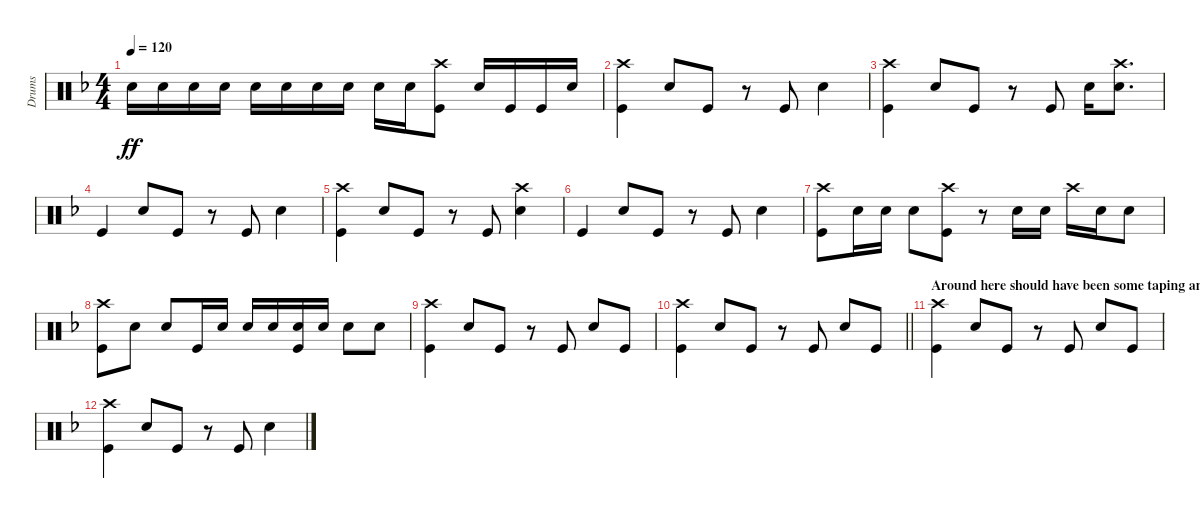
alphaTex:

\track ("Drums" "Drums") {instrument percussion}
\staff {score}
\articulation defaults
\ts (4 4)
\tempo 120
\clef neutral
\ks dminor "Snare (hit) 2".16{dy ff} "Snare (hit) 2".16 "Snare (hit) 2".16 "Snare (hit) 2".16 "Snare (hit) 2".16 "Snare (hit) 2".16 "Snare (hit) 2".16 "Snare (hit) 2".16 "Snare (hit) 2".16 "Snare (hit) 2".16
("Crash high (hit)" "Kick (hit)").8 "Snare (hit) 2".16 "Kick (hit)".16 "Kick (hit)".16 "Snare (hit) 2".16 |
("Crash high (hit)" "Kick (hit)").4 "Snare (hit) 2".8 "Kick (hit)".8 r.8 "Kick (hit)".8 "Snare (hit) 2".4 |
("Crash high (hit)" "Kick (hit)").4 "Snare (hit) 2".8 "Kick (hit)".8 r.8 "Kick (hit)".8 "Snare (hit) 2".16 ("Crash high (hit)" "Snare (hit) 2").8{d} |
"Kick (hit)".4 "Snare (hit) 2".8 "Kick (hit)".8 r.8 "Kick (hit)".8 "Snare (hit) 2".4 |
("Crash high (hit)" "Kick (hit)").4 "Snare (hit) 2".8 "Kick (hit)".8 r.8 "Kick (hit)".8 ("Crash high (hit)" "Snare (hit) 2").4 |
"Kick (hit)".4 "Snare (hit) 2".8 "Kick (hit)".8 r.8 "Kick (hit)".8 "Snare (hit) 2".4 |
("Crash high (hit)" "Kick (hit)").8 "Snare (hit) 2".16 "Snare (hit) 2".16 "Snare (hit) 2".8 ("Crash high (hit)" "Kick (hit)").8 r.8 "Snare (hit) 2".16 "Snare (hit) 2".16 "Crash high (hit)".16 "Snare (hit) 2".16 "Snare (hit) 2".8 |
("Crash high (hit)" "Kick (hit)").8 "Snare (hit) 2".8 "Snare (hit) 2".8 "Kick (hit)".16 "Snare (hit) 2".16 "Snare (hit) 2".16 "Snare (hit) 2".16 ("Snare (hit) 2" "Kick (hit)").16 "Snare (hit) 2".16 "Snare (hit) 2".8 "Snare (hit) 2".8 |
("Crash high (hit)" "Kick (hit)").4 "Snare (hit) 2".8 "Kick (hit)".8 r.8 "Kick (hit)".8 "Snare (hit) 2".8 "Kick (hit)".8 |
\barLineRight lightlight
("Crash high (hit)" "Kick (hit)").4 "Snare (hit) 2".8 "Kick (hit)".8 r.8 "Kick (hit)".8 "Snare (hit) 2".8 "Kick (hit)".8 |
\section ("" "Around here should have been some taping and a sweep(unable to tab it out, fades out in my video)")
("Crash high (hit)" "Kick (hit)").4 "Snare (hit) 2".8 "Kick (hit)".8 r.8 "Kick (hit)".8 "Snare (hit) 2".8 "Kick (hit)".8 |
("Crash high (hit)" "Kick (hit)").4 "Snare (hit) 2".8 "Kick (hit)".8 r.8 "Kick (hit)".8 "Snare (hit) 2".4
